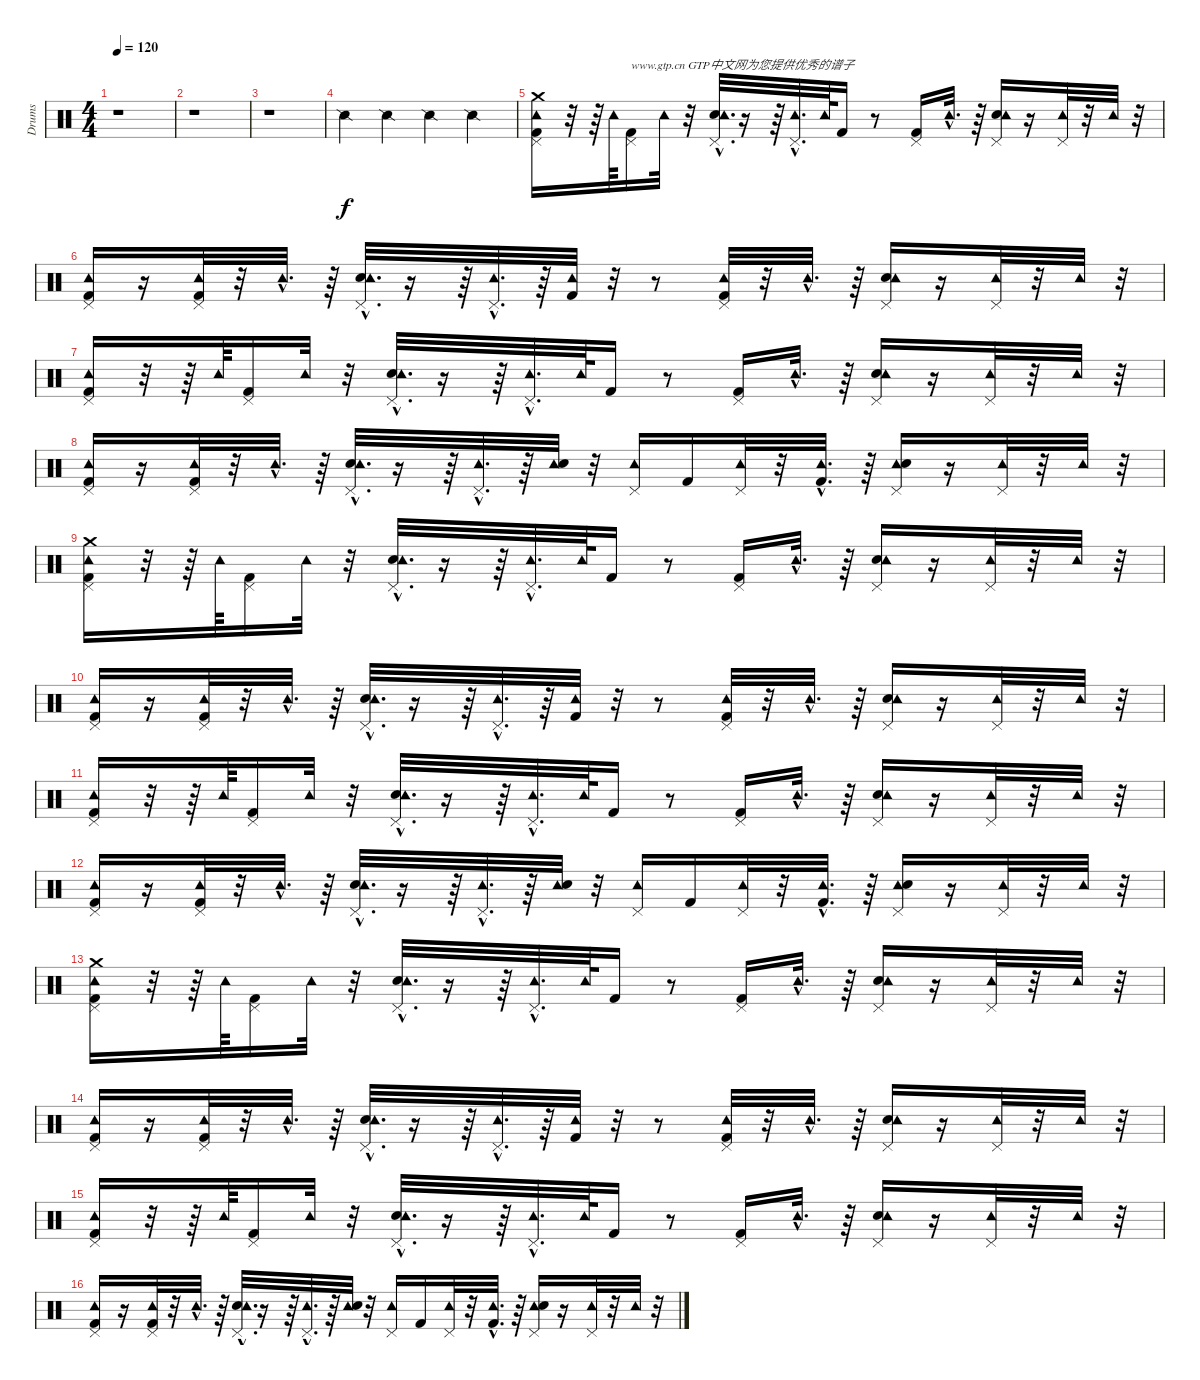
\track ("Drums" "Drums") {instrument percussion}
\staff {score}
\articulation defaults
\ts (4 4)
\tempo 120
\clef neutral
\ks c
r.1{dy f} |
r.1 |
r.1 |
"Snare (side stick) 2".4 "Snare (side stick) 2".4 "Snare (side stick) 2".4 "Snare (side stick) 2".4 |
("Tambourine (hit)" "Pedal Hi-Hat (hit)" "Kick (hit) 2" "Crash medium (hit)").16 r.32 r.64 "Tambourine (hit)".64 ("Kick (hit) 2" "Pedal Hi-Hat (hit)").16{txt "www.gtp.cn GTP中文网为您提供优秀的谱子"} "Tambourine (hit)".32 r.32 ("Electric Snare (hit)"{hac} "Pedal Hi-Hat (hit)"{hac} "Tambourine (hit)"{hac}).32{d} r.16 r.64 ("Pedal Hi-Hat (hit)"{hac} "Tambourine (hit)"{hac}).32{d} "Tambourine (hit)".64 "Kick (hit) 2".16 r.8 ("Kick (hit) 2" "Pedal Hi-Hat (hit)").16 "Tambourine (hit)"{hac}.32{d} r.64 ("Electric Snare (hit)" "Pedal Hi-Hat (hit)" "Tambourine (hit)").16 r.16 ("Pedal Hi-Hat (hit)" "Tambourine (hit)").32 r.32 "Tambourine (hit)".32 r.32 |
("Kick (hit) 2" "Pedal Hi-Hat (hit)" "Tambourine (hit)").16 r.16 ("Kick (hit) 2" "Pedal Hi-Hat (hit)" "Tambourine (hit)").32 r.32 "Tambourine (hit)"{hac}.32{d} r.64 ("Electric Snare (hit)"{hac} "Pedal Hi-Hat (hit)"{hac} "Tambourine (hit)"{hac}).32{d} r.16 r.64 ("Pedal Hi-Hat (hit)"{hac} "Tambourine (hit)"{hac}).32{d} r.64 ("Kick (hit) 2" "Tambourine (hit)").32 r.32 r.8 ("Kick (hit) 2" "Pedal Hi-Hat (hit)" "Tambourine (hit)").32 r.32 "Tambourine (hit)"{hac}.32{d} r.64 ("Electric Snare (hit)" "Pedal Hi-Hat (hit)" "Tambourine (hit)").16 r.16 ("Pedal Hi-Hat (hit)" "Tambourine (hit)").32 r.32 "Tambourine (hit)".32 r.32 |
("Kick (hit) 2" "Pedal Hi-Hat (hit)" "Tambourine (hit)").16 r.32 r.64 "Tambourine (hit)".64 ("Kick (hit) 2" "Pedal Hi-Hat (hit)").16 "Tambourine (hit)".32 r.32 ("Electric Snare (hit)"{hac} "Pedal Hi-Hat (hit)"{hac} "Tambourine (hit)"{hac}).32{d} r.16 r.64 ("Pedal Hi-Hat (hit)"{hac} "Tambourine (hit)"{hac}).32{d} "Tambourine (hit)".64 "Kick (hit) 2".16 r.8 ("Kick (hit) 2" "Pedal Hi-Hat (hit)").16 "Tambourine (hit)"{hac}.32{d} r.64 ("Electric Snare (hit)" "Pedal Hi-Hat (hit)" "Tambourine (hit)").16 r.16 ("Pedal Hi-Hat (hit)" "Tambourine (hit)").32 r.32 "Tambourine (hit)".32 r.32 |
("Kick (hit) 2" "Pedal Hi-Hat (hit)" "Tambourine (hit)").16 r.16 ("Kick (hit) 2" "Pedal Hi-Hat (hit)" "Tambourine (hit)").32 r.32 "Tambourine (hit)"{hac}.32{d} r.64 ("Electric Snare (hit)"{hac} "Pedal Hi-Hat (hit)"{hac} "Tambourine (hit)"{hac}).32{d} r.16 r.64 ("Pedal Hi-Hat (hit)"{hac} "Tambourine (hit)"{hac}).32{d} r.64 ("Tambourine (hit)" "Electric Snare (hit)").32 r.32 ("Pedal Hi-Hat (hit)" "Tambourine (hit)").16 "Kick (hit) 2".16 ("Pedal Hi-Hat (hit)" "Tambourine (hit)").32 r.32 ("Tambourine (hit)"{hac} "Kick (hit) 2"{hac}).32{d} r.64 ("Pedal Hi-Hat (hit)" "Tambourine (hit)" "Electric Snare (hit)").16 r.16 ("Pedal Hi-Hat (hit)" "Tambourine (hit)").32 r.32 "Tambourine (hit)".32 r.32 |
("Tambourine (hit)" "Pedal Hi-Hat (hit)" "Kick (hit) 2" "Crash medium (hit)").16 r.32 r.64 "Tambourine (hit)".64 ("Kick (hit) 2" "Pedal Hi-Hat (hit)").16 "Tambourine (hit)".32 r.32 ("Electric Snare (hit)"{hac} "Pedal Hi-Hat (hit)"{hac} "Tambourine (hit)"{hac}).32{d} r.16 r.64 ("Pedal Hi-Hat (hit)"{hac} "Tambourine (hit)"{hac}).32{d} "Tambourine (hit)".64 "Kick (hit) 2".16 r.8 ("Kick (hit) 2" "Pedal Hi-Hat (hit)").16 "Tambourine (hit)"{hac}.32{d} r.64 ("Electric Snare (hit)" "Pedal Hi-Hat (hit)" "Tambourine (hit)").16 r.16 ("Pedal Hi-Hat (hit)" "Tambourine (hit)").32 r.32 "Tambourine (hit)".32 r.32 |
("Kick (hit) 2" "Pedal Hi-Hat (hit)" "Tambourine (hit)").16 r.16 ("Kick (hit) 2" "Pedal Hi-Hat (hit)" "Tambourine (hit)").32 r.32 "Tambourine (hit)"{hac}.32{d} r.64 ("Electric Snare (hit)"{hac} "Pedal Hi-Hat (hit)"{hac} "Tambourine (hit)"{hac}).32{d} r.16 r.64 ("Pedal Hi-Hat (hit)"{hac} "Tambourine (hit)"{hac}).32{d} r.64 ("Kick (hit) 2" "Tambourine (hit)").32 r.32 r.8 ("Kick (hit) 2" "Pedal Hi-Hat (hit)" "Tambourine (hit)").32 r.32 "Tambourine (hit)"{hac}.32{d} r.64 ("Electric Snare (hit)" "Pedal Hi-Hat (hit)" "Tambourine (hit)").16 r.16 ("Pedal Hi-Hat (hit)" "Tambourine (hit)").32 r.32 "Tambourine (hit)".32 r.32 |
("Kick (hit) 2" "Pedal Hi-Hat (hit)" "Tambourine (hit)").16 r.32 r.64 "Tambourine (hit)".64 ("Kick (hit) 2" "Pedal Hi-Hat (hit)").16 "Tambourine (hit)".32 r.32 ("Electric Snare (hit)"{hac} "Pedal Hi-Hat (hit)"{hac} "Tambourine (hit)"{hac}).32{d} r.16 r.64 ("Pedal Hi-Hat (hit)"{hac} "Tambourine (hit)"{hac}).32{d} "Tambourine (hit)".64 "Kick (hit) 2".16 r.8 ("Kick (hit) 2" "Pedal Hi-Hat (hit)").16 "Tambourine (hit)"{hac}.32{d} r.64 ("Electric Snare (hit)" "Pedal Hi-Hat (hit)" "Tambourine (hit)").16 r.16 ("Pedal Hi-Hat (hit)" "Tambourine (hit)").32 r.32 "Tambourine (hit)".32 r.32 |
("Kick (hit) 2" "Pedal Hi-Hat (hit)" "Tambourine (hit)").16 r.16 ("Kick (hit) 2" "Pedal Hi-Hat (hit)" "Tambourine (hit)").32 r.32 "Tambourine (hit)"{hac}.32{d} r.64 ("Electric Snare (hit)"{hac} "Pedal Hi-Hat (hit)"{hac} "Tambourine (hit)"{hac}).32{d} r.16 r.64 ("Pedal Hi-Hat (hit)"{hac} "Tambourine (hit)"{hac}).32{d} r.64 ("Tambourine (hit)" "Electric Snare (hit)").32 r.32 ("Pedal Hi-Hat (hit)" "Tambourine (hit)").16 "Kick (hit) 2".16 ("Pedal Hi-Hat (hit)" "Tambourine (hit)").32 r.32 ("Tambourine (hit)"{hac} "Kick (hit) 2"{hac}).32{d} r.64 ("Pedal Hi-Hat (hit)" "Tambourine (hit)" "Electric Snare (hit)").16 r.16 ("Pedal Hi-Hat (hit)" "Tambourine (hit)").32 r.32 "Tambourine (hit)".32 r.32 |
("Tambourine (hit)" "Pedal Hi-Hat (hit)" "Kick (hit) 2" "Crash medium (hit)").16 r.32 r.64 "Tambourine (hit)".64 ("Kick (hit) 2" "Pedal Hi-Hat (hit)").16 "Tambourine (hit)".32 r.32 ("Electric Snare (hit)"{hac} "Pedal Hi-Hat (hit)"{hac} "Tambourine (hit)"{hac}).32{d} r.16 r.64 ("Pedal Hi-Hat (hit)"{hac} "Tambourine (hit)"{hac}).32{d} "Tambourine (hit)".64 "Kick (hit) 2".16 r.8 ("Kick (hit) 2" "Pedal Hi-Hat (hit)").16 "Tambourine (hit)"{hac}.32{d} r.64 ("Electric Snare (hit)" "Pedal Hi-Hat (hit)" "Tambourine (hit)").16 r.16 ("Pedal Hi-Hat (hit)" "Tambourine (hit)").32 r.32 "Tambourine (hit)".32 r.32 |
("Kick (hit) 2" "Pedal Hi-Hat (hit)" "Tambourine (hit)").16 r.16 ("Kick (hit) 2" "Pedal Hi-Hat (hit)" "Tambourine (hit)").32 r.32 "Tambourine (hit)"{hac}.32{d} r.64 ("Electric Snare (hit)"{hac} "Pedal Hi-Hat (hit)"{hac} "Tambourine (hit)"{hac}).32{d} r.16 r.64 ("Pedal Hi-Hat (hit)"{hac} "Tambourine (hit)"{hac}).32{d} r.64 ("Kick (hit) 2" "Tambourine (hit)").32 r.32 r.8 ("Kick (hit) 2" "Pedal Hi-Hat (hit)" "Tambourine (hit)").32 r.32 "Tambourine (hit)"{hac}.32{d} r.64 ("Electric Snare (hit)" "Pedal Hi-Hat (hit)" "Tambourine (hit)").16 r.16 ("Pedal Hi-Hat (hit)" "Tambourine (hit)").32 r.32 "Tambourine (hit)".32 r.32 |
("Kick (hit) 2" "Pedal Hi-Hat (hit)" "Tambourine (hit)").16 r.32 r.64 "Tambourine (hit)".64 ("Kick (hit) 2" "Pedal Hi-Hat (hit)").16 "Tambourine (hit)".32 r.32 ("Electric Snare (hit)"{hac} "Pedal Hi-Hat (hit)"{hac} "Tambourine (hit)"{hac}).32{d} r.16 r.64 ("Pedal Hi-Hat (hit)"{hac} "Tambourine (hit)"{hac}).32{d} "Tambourine (hit)".64 "Kick (hit) 2".16 r.8 ("Kick (hit) 2" "Pedal Hi-Hat (hit)").16 "Tambourine (hit)"{hac}.32{d} r.64 ("Electric Snare (hit)" "Pedal Hi-Hat (hit)" "Tambourine (hit)").16 r.16 ("Pedal Hi-Hat (hit)" "Tambourine (hit)").32 r.32 "Tambourine (hit)".32 r.32 |
("Kick (hit) 2" "Pedal Hi-Hat (hit)" "Tambourine (hit)").16 r.16 ("Kick (hit) 2" "Pedal Hi-Hat (hit)" "Tambourine (hit)").32 r.32 "Tambourine (hit)"{hac}.32{d} r.64 ("Electric Snare (hit)"{hac} "Pedal Hi-Hat (hit)"{hac} "Tambourine (hit)"{hac}).32{d} r.16 r.64 ("Pedal Hi-Hat (hit)"{hac} "Tambourine (hit)"{hac}).32{d} r.64 ("Tambourine (hit)" "Electric Snare (hit)").32 r.32 ("Pedal Hi-Hat (hit)" "Tambourine (hit)").16 "Kick (hit) 2".16 ("Pedal Hi-Hat (hit)" "Tambourine (hit)").32 r.32 ("Tambourine (hit)"{hac} "Kick (hit) 2"{hac}).32{d} r.64 ("Pedal Hi-Hat (hit)" "Tambourine (hit)" "Electric Snare (hit)").16 r.16 ("Pedal Hi-Hat (hit)" "Tambourine (hit)").32 r.32 "Tambourine (hit)".32 r.32
